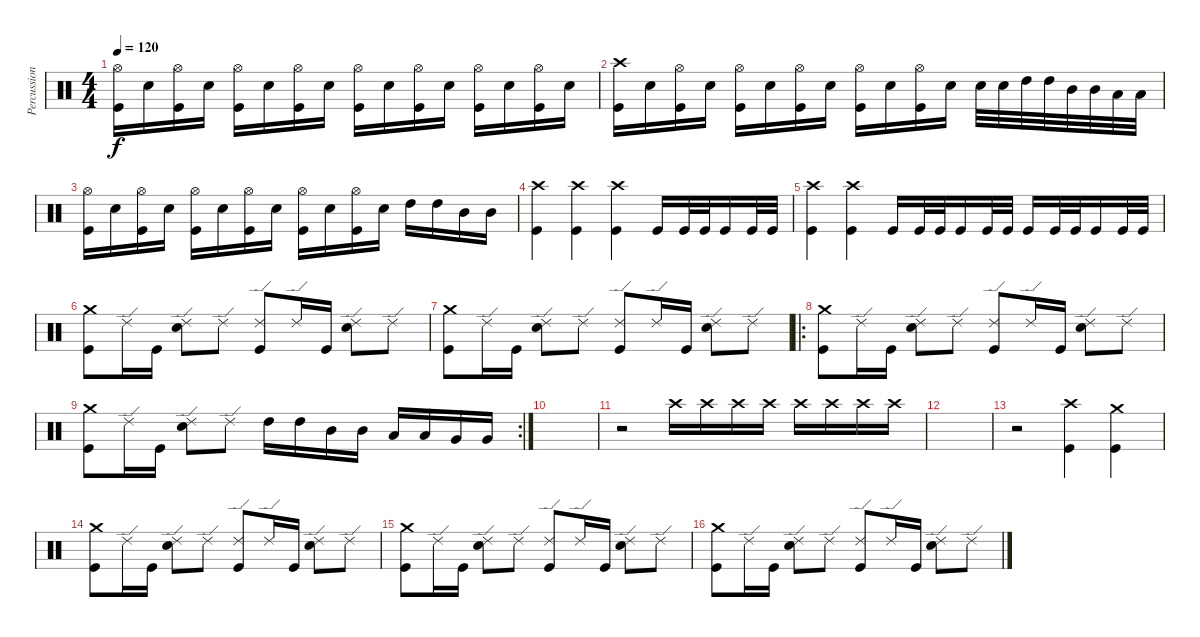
\track ("Percussion" "Percussion") {instrument percussion}
\staff {score}
\articulation defaults
\ts (4 4)
\tempo 120
\clef neutral
\ks c
("Hi-Hat (open)" "Kick (hit)").16{dy f} "Electric Snare (hit)".16 ("Hi-Hat (open)" "Kick (hit)").16 "Electric Snare (hit)".16 ("Hi-Hat (open)" "Kick (hit)").16 "Electric Snare (hit)".16 ("Hi-Hat (open)" "Kick (hit)").16 "Electric Snare (hit)".16 ("Hi-Hat (open)" "Kick (hit)").16 "Electric Snare (hit)".16 ("Hi-Hat (open)" "Kick (hit)").16 "Electric Snare (hit)".16 ("Hi-Hat (open)" "Kick (hit)").16 "Electric Snare (hit)".16 ("Hi-Hat (open)" "Kick (hit)").16 "Electric Snare (hit)".16 |
("Crash high (hit)" "Kick (hit)").16 "Electric Snare (hit)".16 ("Hi-Hat (open)" "Kick (hit)").16 "Electric Snare (hit)".16 ("Hi-Hat (open)" "Kick (hit)").16 "Electric Snare (hit)".16 ("Hi-Hat (open)" "Kick (hit)").16 "Electric Snare (hit)".16 ("Hi-Hat (open)" "Kick (hit)").16 "Electric Snare (hit)".16 ("Hi-Hat (open)" "Kick (hit)").16 "Electric Snare (hit)".16 "Electric Snare (hit)".32 "Electric Snare (hit)".32 "High Tom (hit)".32 "High Tom (hit)".32 "Mid Tom (hit)".32 "Mid Tom (hit)".32 "Low Tom (hit)".32 "Low Tom (hit)".32 |
("Hi-Hat (open)" "Kick (hit)").16 "Electric Snare (hit)".16 ("Hi-Hat (open)" "Kick (hit)").16 "Electric Snare (hit)".16 ("Hi-Hat (open)" "Kick (hit)").16 "Electric Snare (hit)".16 ("Hi-Hat (open)" "Kick (hit)").16 "Electric Snare (hit)".16 ("Hi-Hat (open)" "Kick (hit)").16 "Electric Snare (hit)".16 ("Hi-Hat (open)" "Kick (hit)").16 "Electric Snare (hit)".16 "High Tom (hit)".16 "High Tom (hit)".16 "Mid Tom (hit)".16 "Mid Tom (hit)".16 |
("Crash high (hit)" "Kick (hit)").4 ("Crash high (hit)" "Kick (hit)").4 ("Crash high (hit)" "Kick (hit)").4 "Kick (hit)".16 "Kick (hit)".32 "Kick (hit)".32 "Kick (hit)".16 "Kick (hit)".32 "Kick (hit)".32 |
("Crash high (hit)" "Kick (hit)").4 ("Crash high (hit)" "Kick (hit)").4 "Kick (hit)".16 "Kick (hit)".32 "Kick (hit)".32 "Kick (hit)".16 "Kick (hit)".32 "Kick (hit)".32 "Kick (hit)".16 "Kick (hit)".32 "Kick (hit)".32 "Kick (hit)".16 "Kick (hit)".32 "Kick (hit)".32 |
("Crash medium (hit)" "Kick (hit)").8 "Ride (edge) 2".16 "Kick (hit)".16 ("Ride (edge) 2" "Electric Snare (hit)").8 "Ride (edge) 2".8 ("Ride (edge) 2" "Kick (hit)").8 "Ride (edge) 2".16 "Kick (hit)".16 ("Ride (edge) 2" "Electric Snare (hit)").8 "Ride (edge) 2".8 |
("Crash medium (hit)" "Kick (hit)").8 "Ride (edge) 2".16 "Kick (hit)".16 ("Ride (edge) 2" "Electric Snare (hit)").8 "Ride (edge) 2".8 ("Ride (edge) 2" "Kick (hit)").8 "Ride (edge) 2".16 "Kick (hit)".16 ("Ride (edge) 2" "Electric Snare (hit)").8 "Ride (edge) 2".8 |
\ro
("Crash medium (hit)" "Kick (hit)").8 "Ride (edge) 2".16 "Kick (hit)".16 ("Ride (edge) 2" "Electric Snare (hit)").8 "Ride (edge) 2".8 ("Ride (edge) 2" "Kick (hit)").8 "Ride (edge) 2".16 "Kick (hit)".16 ("Ride (edge) 2" "Electric Snare (hit)").8 "Ride (edge) 2".8 |
\rc 2
("Crash medium (hit)" "Kick (hit)").8 "Ride (edge) 2".16 "Kick (hit)".16 ("Ride (edge) 2" "Electric Snare (hit)").8 "Ride (edge) 2".8 "High Tom (hit)".16 "High Tom (hit)".16 "Mid Tom (hit)".16 "Mid Tom (hit)".16 "Low Tom (hit)".16 "Low Tom (hit)".16 "Very Low Tom (hit)".16 "Very Low Tom (hit)".16 |
|
r.2 "Crash high (hit)".16{volume 0} "Crash high (hit)".16{volume 3} "Crash high (hit)".16 "Crash high (hit)".16 "Crash high (hit)".16{volume 8} "Crash high (hit)".16 "Crash high (hit)".16 "Crash high (hit)".16 |
|
r.2 ("Crash high (hit)" "Kick (hit)").4 ("Crash medium (hit)" "Kick (hit)").4 |
("Crash medium (hit)" "Kick (hit)").8 "Ride (edge) 2".16 "Kick (hit)".16 ("Ride (edge) 2" "Electric Snare (hit)").8 "Ride (edge) 2".8 ("Ride (edge) 2" "Kick (hit)").8 "Ride (edge) 2".16 "Kick (hit)".16 ("Ride (edge) 2" "Electric Snare (hit)").8 "Ride (edge) 2".8 |
("Crash medium (hit)" "Kick (hit)").8 "Ride (edge) 2".16 "Kick (hit)".16 ("Ride (edge) 2" "Electric Snare (hit)").8 "Ride (edge) 2".8 ("Ride (edge) 2" "Kick (hit)").8 "Ride (edge) 2".16 "Kick (hit)".16 ("Ride (edge) 2" "Electric Snare (hit)").8 "Ride (edge) 2".8 |
("Crash medium (hit)" "Kick (hit)").8 "Ride (edge) 2".16 "Kick (hit)".16 ("Ride (edge) 2" "Electric Snare (hit)").8 "Ride (edge) 2".8 ("Ride (edge) 2" "Kick (hit)").8 "Ride (edge) 2".16 "Kick (hit)".16 ("Ride (edge) 2" "Electric Snare (hit)").8 "Ride (edge) 2".8
